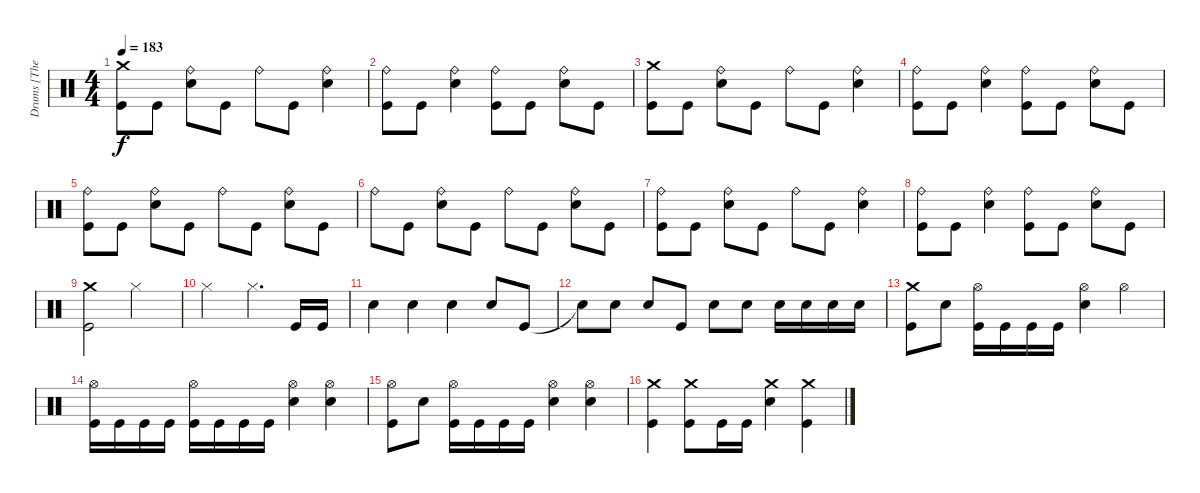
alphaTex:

\track ("Drums [The Rev]" "Drums [The") {instrument percussion}
\staff {score}
\articulation defaults
\ts (4 4)
\tempo 183
\clef neutral
\ks c
("Crash medium (hit)" "Kick (hit)").8{dy f} "Kick (hit)".8 ("Ride (bell)" "Snare (hit) 2").8 "Kick (hit)".8 "Ride (bell)".8 "Kick (hit)".8 ("Ride (bell)" "Snare (hit) 2").4 |
("Ride (bell)" "Kick (hit)").8 "Kick (hit)".8 ("Ride (bell)" "Snare (hit) 2").4 ("Ride (bell)" "Kick (hit)").8 "Kick (hit)".8 ("Ride (bell)" "Snare (hit) 2").8 "Kick (hit)".8 |
("Crash medium (hit)" "Kick (hit)").8 "Kick (hit)".8 ("Ride (bell)" "Snare (hit) 2").8 "Kick (hit)".8 "Ride (bell)".8 "Kick (hit)".8 ("Ride (bell)" "Snare (hit) 2").4 |
("Ride (bell)" "Kick (hit)").8 "Kick (hit)".8 ("Ride (bell)" "Snare (hit) 2").4 ("Ride (bell)" "Kick (hit)").8 "Kick (hit)".8 ("Ride (bell)" "Snare (hit) 2").8 "Kick (hit)".8 |
("Ride (bell)" "Kick (hit)").8 "Kick (hit)".8 ("Ride (bell)" "Snare (hit) 2").8 "Kick (hit)".8 "Ride (bell)".8 "Kick (hit)".8 ("Ride (bell)" "Snare (hit) 2").8 "Kick (hit)".8 |
"Ride (bell)".8 "Kick (hit)".8 ("Ride (bell)" "Snare (hit) 2").8 "Kick (hit)".8 "Ride (bell)".8 "Kick (hit)".8 ("Ride (bell)" "Snare (hit) 2").8 "Kick (hit)".8 |
("Ride (bell)" "Kick (hit)").8 "Kick (hit)".8 ("Ride (bell)" "Snare (hit) 2").8 "Kick (hit)".8 "Ride (bell)".8 "Kick (hit)".8 ("Ride (bell)" "Snare (hit) 2").4 |
("Ride (bell)" "Kick (hit)").8 "Kick (hit)".8 ("Ride (bell)" "Snare (hit) 2").4 ("Ride (bell)" "Kick (hit)").8 "Kick (hit)".8 ("Ride (bell)" "Snare (hit) 2").8 "Kick (hit)".8 |
("Crash medium (hit)" "Kick (hit)").2 "Hi-Hat (closed)".2 |
"Hi-Hat (closed)".2 "Hi-Hat (closed)".4{d} "Kick (hit)".16 "Kick (hit)".16 |
"Snare (hit) 2".4 "Snare (hit) 2".4 "Snare (hit) 2".4 "Snare (hit) 2".8 "Kick (hit)".8 |
"Snare (hit)"{t}.8 "Snare (hit) 2".8 "Snare (hit) 2".8 "Kick (hit)".8 "Snare (hit) 2".8 "Snare (hit) 2".8 "Snare (hit) 2".16 "Snare (hit) 2".16 "Snare (hit) 2".16 "Snare (hit) 2".16 |
("Crash medium (hit)" "Kick (hit)").8 "Snare (hit) 2".8 ("Hi-Hat (open)" "Kick (hit)").16 "Kick (hit)".16 "Kick (hit)".16 "Kick (hit)".16 ("Hi-Hat (open)" "Snare (hit) 2").4 "Hi-Hat (open)".4 |
("Hi-Hat (open)" "Kick (hit)").16 "Kick (hit)".16 "Kick (hit)".16 "Kick (hit)".16 ("Hi-Hat (open)" "Kick (hit)").16 "Kick (hit)".16 "Kick (hit)".16 "Kick (hit)".16 ("Hi-Hat (open)" "Snare (hit) 2").4 ("Hi-Hat (open)" "Snare (hit) 2").4 |
("Hi-Hat (open)" "Kick (hit)").8 "Snare (hit) 2".8 ("Hi-Hat (open)" "Kick (hit)").16 "Kick (hit)".16 "Kick (hit)".16 "Kick (hit)".16 ("Hi-Hat (open)" "Snare (hit) 2").4 ("Hi-Hat (open)" "Snare (hit) 2").4 |
("Crash medium (hit)" "Kick (hit)").4 ("Crash medium (hit)" "Kick (hit)").8 "Kick (hit)".16 "Kick (hit)".16 ("Crash medium (hit)" "Snare (hit) 2").4 ("Crash medium (hit)" "Kick (hit)").4
